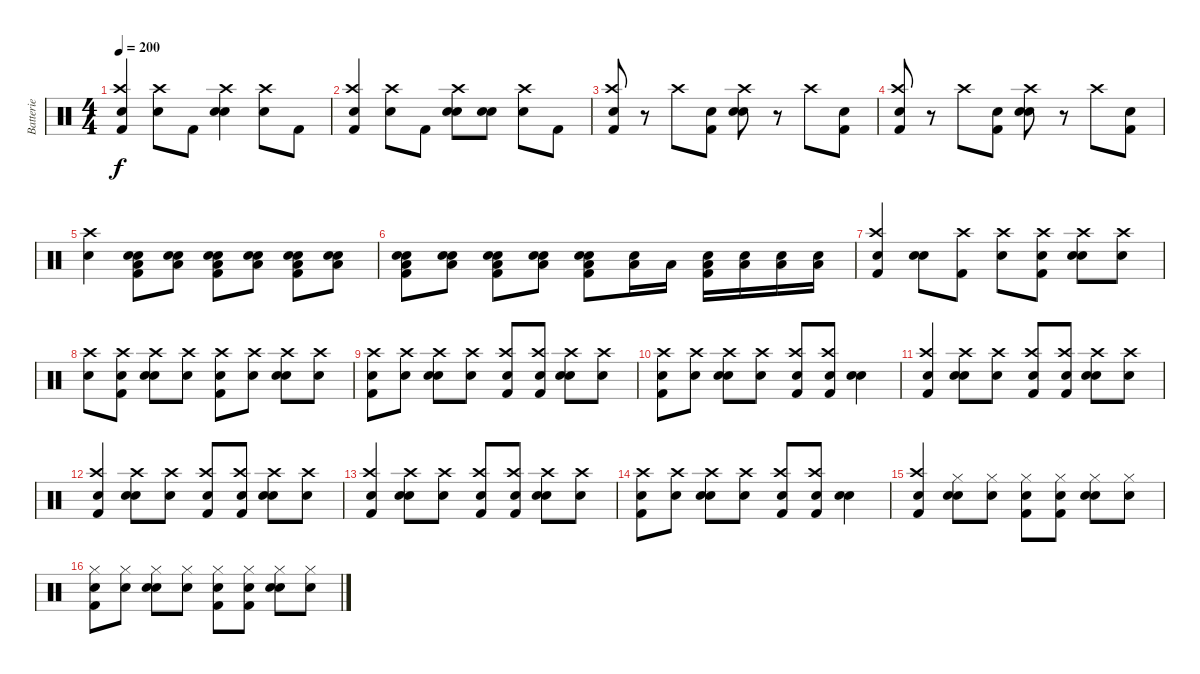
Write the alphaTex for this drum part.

\track ("Batterie" "Batterie") {instrument percussion}
\staff {score}
\articulation defaults
\ts (4 4)
\tempo 200
\clef neutral
\ks c
("Snare (hit)" "Crash high (hit)" "Kick (hit) 2").4{dy f} ("Snare (hit)" "Crash high (hit)").8 "Kick (hit) 2".8 ("Snare (hit)" "Crash high (hit)" "Electric Snare (hit)").4 ("Snare (hit)" "Crash high (hit)").8 "Kick (hit) 2".8 |
("Snare (hit)" "Crash high (hit)" "Kick (hit) 2").4 ("Snare (hit)" "Crash high (hit)").8 "Kick (hit) 2".8 ("Snare (hit)" "Crash high (hit)" "Electric Snare (hit)").8 ("Snare (hit)" "Electric Snare (hit)").8 ("Snare (hit)" "Crash high (hit)").8 "Kick (hit) 2".8 |
("Snare (hit)" "Crash high (hit)" "Kick (hit) 2").8 r.8 "Crash high (hit)".8 ("Snare (hit)" "Kick (hit) 2").8 ("Snare (hit)" "Crash high (hit)" "Electric Snare (hit)").8 r.8 "Crash high (hit)".8 ("Snare (hit)" "Kick (hit) 2").8 |
("Snare (hit)" "Crash high (hit)" "Kick (hit) 2").8 r.8 "Crash high (hit)".8 ("Snare (hit)" "Kick (hit) 2").8 ("Snare (hit)" "Crash high (hit)" "Electric Snare (hit)").8 r.8 "Crash high (hit)".8 ("Snare (hit)" "Kick (hit) 2").8 |
("Snare (hit)" "Crash high (hit)").4 ("Snare (hit)" "Electric Snare (hit)" "Kick (hit) 2" "Low Floor Tom (hit)").8 ("Snare (hit)" "Electric Snare (hit)" "Low Floor Tom (hit)").8 ("Snare (hit)" "Electric Snare (hit)" "Kick (hit) 2" "Low Floor Tom (hit)").8 ("Snare (hit)" "Electric Snare (hit)" "Low Floor Tom (hit)").8 ("Snare (hit)" "Electric Snare (hit)" "Kick (hit) 2" "Low Floor Tom (hit)").8 ("Snare (hit)" "Electric Snare (hit)" "Low Floor Tom (hit)").8 |
("Snare (hit)" "Electric Snare (hit)" "Kick (hit) 2" "Low Floor Tom (hit)").8 ("Snare (hit)" "Electric Snare (hit)" "Low Floor Tom (hit)").8 ("Snare (hit)" "Electric Snare (hit)" "Kick (hit) 2" "Low Floor Tom (hit)").8 ("Snare (hit)" "Electric Snare (hit)" "Low Floor Tom (hit)").8 ("Snare (hit)" "Electric Snare (hit)" "Kick (hit) 2" "Low Floor Tom (hit)").8 ("Snare (hit)" "Low Floor Tom (hit)").16 "Low Floor Tom (hit)".16 ("Snare (hit)" "Kick (hit) 2" "Low Floor Tom (hit)").16 ("Snare (hit)" "Low Floor Tom (hit)").16 ("Snare (hit)" "Low Floor Tom (hit)").16 ("Snare (hit)" "Low Floor Tom (hit)").16 |
("Snare (hit)" "Crash high (hit)" "Kick (hit) 2").4 ("Snare (hit)" "Electric Snare (hit)").8 ("Crash high (hit)" "Kick (hit) 2").8 ("Snare (hit)" "Crash high (hit)").8 ("Snare (hit)" "Crash high (hit)" "Kick (hit) 2").8 ("Snare (hit)" "Crash high (hit)" "Electric Snare (hit)").8 ("Snare (hit)" "Crash high (hit)").8 |
("Snare (hit)" "Crash high (hit)").8 ("Snare (hit)" "Crash high (hit)" "Kick (hit) 2").8 ("Snare (hit)" "Crash high (hit)" "Electric Snare (hit)").8 ("Snare (hit)" "Crash high (hit)").8 ("Snare (hit)" "Crash high (hit)" "Kick (hit) 2").8 ("Snare (hit)" "Crash high (hit)").8 ("Snare (hit)" "Crash high (hit)" "Electric Snare (hit)").8 ("Snare (hit)" "Crash high (hit)").8 |
("Snare (hit)" "Crash high (hit)" "Kick (hit) 2").8 ("Snare (hit)" "Crash high (hit)").8 ("Snare (hit)" "Crash high (hit)" "Electric Snare (hit)").8 ("Snare (hit)" "Crash high (hit)").8 ("Snare (hit)" "Crash high (hit)" "Kick (hit) 2").8 ("Snare (hit)" "Crash high (hit)" "Kick (hit) 2").8 ("Snare (hit)" "Crash high (hit)" "Electric Snare (hit)").8 ("Snare (hit)" "Crash high (hit)").8 |
("Snare (hit)" "Crash high (hit)" "Kick (hit) 2").8 ("Snare (hit)" "Crash high (hit)").8 ("Snare (hit)" "Crash high (hit)" "Electric Snare (hit)").8 ("Snare (hit)" "Crash high (hit)").8 ("Snare (hit)" "Crash high (hit)" "Kick (hit) 2").8 ("Snare (hit)" "Crash high (hit)" "Kick (hit) 2").8 ("Snare (hit)" "Electric Snare (hit)").4 |
("Snare (hit)" "Crash high (hit)" "Kick (hit) 2").4 ("Snare (hit)" "Crash high (hit)" "Electric Snare (hit)").8 ("Snare (hit)" "Crash high (hit)").8 ("Snare (hit)" "Crash high (hit)" "Kick (hit) 2").8 ("Snare (hit)" "Crash high (hit)" "Kick (hit) 2").8 ("Snare (hit)" "Crash high (hit)" "Electric Snare (hit)").8 ("Snare (hit)" "Crash high (hit)").8 |
("Snare (hit)" "Crash high (hit)" "Kick (hit) 2").4 ("Snare (hit)" "Crash high (hit)" "Electric Snare (hit)").8 ("Snare (hit)" "Crash high (hit)").8 ("Snare (hit)" "Crash high (hit)" "Kick (hit) 2").8 ("Snare (hit)" "Crash high (hit)" "Kick (hit) 2").8 ("Snare (hit)" "Crash high (hit)" "Electric Snare (hit)").8 ("Snare (hit)" "Crash high (hit)").8 |
("Snare (hit)" "Crash high (hit)" "Kick (hit) 2").4 ("Snare (hit)" "Crash high (hit)" "Electric Snare (hit)").8 ("Snare (hit)" "Crash high (hit)").8 ("Snare (hit)" "Crash high (hit)" "Kick (hit) 2").8 ("Snare (hit)" "Crash high (hit)" "Kick (hit) 2").8 ("Snare (hit)" "Crash high (hit)" "Electric Snare (hit)").8 ("Snare (hit)" "Crash high (hit)").8 |
("Snare (hit)" "Crash high (hit)" "Kick (hit) 2").8 ("Snare (hit)" "Crash high (hit)").8 ("Snare (hit)" "Crash high (hit)" "Electric Snare (hit)").8 ("Snare (hit)" "Crash high (hit)").8 ("Snare (hit)" "Crash high (hit)" "Kick (hit) 2").8 ("Snare (hit)" "Crash high (hit)" "Kick (hit) 2").8 ("Snare (hit)" "Electric Snare (hit)").4 |
("Snare (hit)" "Crash high (hit)" "Kick (hit) 2").4 ("Snare (hit)" "Hi-Hat (closed)" "Electric Snare (hit)").8 ("Snare (hit)" "Hi-Hat (closed)").8 ("Snare (hit)" "Hi-Hat (closed)" "Kick (hit) 2").8 ("Snare (hit)" "Hi-Hat (closed)" "Kick (hit) 2").8 ("Snare (hit)" "Hi-Hat (closed)" "Electric Snare (hit)").8 ("Snare (hit)" "Hi-Hat (closed)").8 |
("Snare (hit)" "Hi-Hat (closed)" "Kick (hit) 2").8 ("Snare (hit)" "Hi-Hat (closed)").8 ("Snare (hit)" "Hi-Hat (closed)" "Electric Snare (hit)").8 ("Snare (hit)" "Hi-Hat (closed)").8 ("Snare (hit)" "Hi-Hat (closed)" "Kick (hit) 2").8 ("Snare (hit)" "Hi-Hat (closed)" "Kick (hit) 2").8 ("Snare (hit)" "Hi-Hat (closed)" "Electric Snare (hit)").8 ("Snare (hit)" "Hi-Hat (closed)").8
